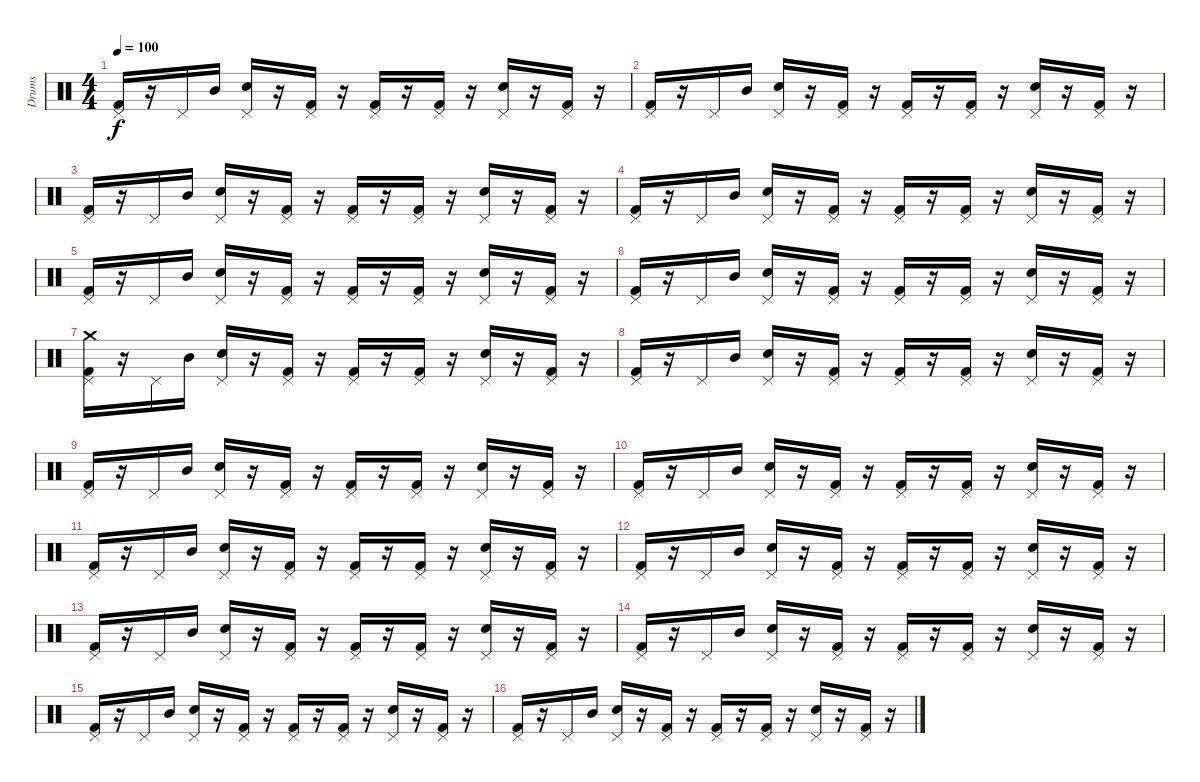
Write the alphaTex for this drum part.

\track ("Drums" "Drums") {instrument percussion}
\staff {score}
\articulation defaults
\ts (4 4)
\tempo 100
\clef neutral
\ks c
("Kick (hit) 2" "Pedal Hi-Hat (hit)").16{dy f} r.16 "Pedal Hi-Hat (hit)".16 "Mid Tom (hit)".16 ("Pedal Hi-Hat (hit)" "Electric Snare (hit)").16 r.16 ("Kick (hit) 2" "Pedal Hi-Hat (hit)").16 r.16 ("Kick (hit) 2" "Pedal Hi-Hat (hit)").16 r.16 ("Kick (hit) 2" "Pedal Hi-Hat (hit)").16 r.16 ("Pedal Hi-Hat (hit)" "Electric Snare (hit)").16 r.16 ("Kick (hit) 2" "Pedal Hi-Hat (hit)").16 r.16 |
("Kick (hit) 2" "Pedal Hi-Hat (hit)").16 r.16 "Pedal Hi-Hat (hit)".16 "Mid Tom (hit)".16 ("Pedal Hi-Hat (hit)" "Electric Snare (hit)").16 r.16 ("Kick (hit) 2" "Pedal Hi-Hat (hit)").16 r.16 ("Kick (hit) 2" "Pedal Hi-Hat (hit)").16 r.16 ("Kick (hit) 2" "Pedal Hi-Hat (hit)").16 r.16 ("Pedal Hi-Hat (hit)" "Electric Snare (hit)").16 r.16 ("Kick (hit) 2" "Pedal Hi-Hat (hit)").16 r.16 |
("Kick (hit) 2" "Pedal Hi-Hat (hit)").16 r.16 "Pedal Hi-Hat (hit)".16 "Mid Tom (hit)".16 ("Pedal Hi-Hat (hit)" "Electric Snare (hit)").16 r.16 ("Kick (hit) 2" "Pedal Hi-Hat (hit)").16 r.16 ("Kick (hit) 2" "Pedal Hi-Hat (hit)").16 r.16 ("Kick (hit) 2" "Pedal Hi-Hat (hit)").16 r.16 ("Pedal Hi-Hat (hit)" "Electric Snare (hit)").16 r.16 ("Kick (hit) 2" "Pedal Hi-Hat (hit)").16 r.16 |
("Kick (hit) 2" "Pedal Hi-Hat (hit)").16 r.16 "Pedal Hi-Hat (hit)".16 "Mid Tom (hit)".16 ("Pedal Hi-Hat (hit)" "Electric Snare (hit)").16 r.16 ("Kick (hit) 2" "Pedal Hi-Hat (hit)").16 r.16 ("Kick (hit) 2" "Pedal Hi-Hat (hit)").16 r.16 ("Kick (hit) 2" "Pedal Hi-Hat (hit)").16 r.16 ("Pedal Hi-Hat (hit)" "Electric Snare (hit)").16 r.16 ("Kick (hit) 2" "Pedal Hi-Hat (hit)").16 r.16 |
("Kick (hit) 2" "Pedal Hi-Hat (hit)").16 r.16 "Pedal Hi-Hat (hit)".16 "Mid Tom (hit)".16 ("Pedal Hi-Hat (hit)" "Electric Snare (hit)").16 r.16 ("Kick (hit) 2" "Pedal Hi-Hat (hit)").16 r.16 ("Kick (hit) 2" "Pedal Hi-Hat (hit)").16 r.16 ("Kick (hit) 2" "Pedal Hi-Hat (hit)").16 r.16 ("Pedal Hi-Hat (hit)" "Electric Snare (hit)").16 r.16 ("Kick (hit) 2" "Pedal Hi-Hat (hit)").16 r.16 |
("Kick (hit) 2" "Pedal Hi-Hat (hit)").16 r.16 "Pedal Hi-Hat (hit)".16 "Mid Tom (hit)".16 ("Pedal Hi-Hat (hit)" "Electric Snare (hit)").16 r.16 ("Kick (hit) 2" "Pedal Hi-Hat (hit)").16 r.16 ("Kick (hit) 2" "Pedal Hi-Hat (hit)").16 r.16 ("Kick (hit) 2" "Pedal Hi-Hat (hit)").16 r.16 ("Pedal Hi-Hat (hit)" "Electric Snare (hit)").16 r.16 ("Kick (hit) 2" "Pedal Hi-Hat (hit)").16 r.16 |
("Kick (hit) 2" "Pedal Hi-Hat (hit)" "Crash medium (hit)").16{volume 12} r.16 "Pedal Hi-Hat (hit)".16 "Mid Tom (hit)".16 ("Pedal Hi-Hat (hit)" "Electric Snare (hit)").16 r.16 ("Kick (hit) 2" "Pedal Hi-Hat (hit)").16 r.16 ("Kick (hit) 2" "Pedal Hi-Hat (hit)").16 r.16 ("Kick (hit) 2" "Pedal Hi-Hat (hit)").16 r.16 ("Pedal Hi-Hat (hit)" "Electric Snare (hit)").16 r.16 ("Kick (hit) 2" "Pedal Hi-Hat (hit)").16 r.16 |
("Kick (hit) 2" "Pedal Hi-Hat (hit)").16 r.16 "Pedal Hi-Hat (hit)".16 "Mid Tom (hit)".16 ("Pedal Hi-Hat (hit)" "Electric Snare (hit)").16 r.16 ("Kick (hit) 2" "Pedal Hi-Hat (hit)").16 r.16 ("Kick (hit) 2" "Pedal Hi-Hat (hit)").16 r.16 ("Kick (hit) 2" "Pedal Hi-Hat (hit)").16 r.16 ("Pedal Hi-Hat (hit)" "Electric Snare (hit)").16 r.16 ("Kick (hit) 2" "Pedal Hi-Hat (hit)").16 r.16 |
("Kick (hit) 2" "Pedal Hi-Hat (hit)").16 r.16 "Pedal Hi-Hat (hit)".16 "Mid Tom (hit)".16 ("Pedal Hi-Hat (hit)" "Electric Snare (hit)").16 r.16 ("Kick (hit) 2" "Pedal Hi-Hat (hit)").16 r.16 ("Kick (hit) 2" "Pedal Hi-Hat (hit)").16 r.16 ("Kick (hit) 2" "Pedal Hi-Hat (hit)").16 r.16 ("Pedal Hi-Hat (hit)" "Electric Snare (hit)").16 r.16 ("Kick (hit) 2" "Pedal Hi-Hat (hit)").16 r.16 |
("Kick (hit) 2" "Pedal Hi-Hat (hit)").16 r.16 "Pedal Hi-Hat (hit)".16 "Mid Tom (hit)".16 ("Pedal Hi-Hat (hit)" "Electric Snare (hit)").16 r.16 ("Kick (hit) 2" "Pedal Hi-Hat (hit)").16 r.16 ("Kick (hit) 2" "Pedal Hi-Hat (hit)").16 r.16 ("Kick (hit) 2" "Pedal Hi-Hat (hit)").16 r.16 ("Pedal Hi-Hat (hit)" "Electric Snare (hit)").16 r.16 ("Kick (hit) 2" "Pedal Hi-Hat (hit)").16 r.16 |
("Kick (hit) 2" "Pedal Hi-Hat (hit)").16 r.16 "Pedal Hi-Hat (hit)".16 "Mid Tom (hit)".16 ("Pedal Hi-Hat (hit)" "Electric Snare (hit)").16 r.16 ("Kick (hit) 2" "Pedal Hi-Hat (hit)").16 r.16 ("Kick (hit) 2" "Pedal Hi-Hat (hit)").16 r.16 ("Kick (hit) 2" "Pedal Hi-Hat (hit)").16 r.16 ("Pedal Hi-Hat (hit)" "Electric Snare (hit)").16 r.16 ("Kick (hit) 2" "Pedal Hi-Hat (hit)").16 r.16 |
("Kick (hit) 2" "Pedal Hi-Hat (hit)").16 r.16 "Pedal Hi-Hat (hit)".16 "Mid Tom (hit)".16 ("Pedal Hi-Hat (hit)" "Electric Snare (hit)").16 r.16 ("Kick (hit) 2" "Pedal Hi-Hat (hit)").16 r.16 ("Kick (hit) 2" "Pedal Hi-Hat (hit)").16 r.16 ("Kick (hit) 2" "Pedal Hi-Hat (hit)").16 r.16 ("Pedal Hi-Hat (hit)" "Electric Snare (hit)").16 r.16 ("Kick (hit) 2" "Pedal Hi-Hat (hit)").16 r.16 |
("Kick (hit) 2" "Pedal Hi-Hat (hit)").16 r.16 "Pedal Hi-Hat (hit)".16 "Mid Tom (hit)".16 ("Pedal Hi-Hat (hit)" "Electric Snare (hit)").16 r.16 ("Kick (hit) 2" "Pedal Hi-Hat (hit)").16 r.16 ("Kick (hit) 2" "Pedal Hi-Hat (hit)").16 r.16 ("Kick (hit) 2" "Pedal Hi-Hat (hit)").16 r.16 ("Pedal Hi-Hat (hit)" "Electric Snare (hit)").16 r.16 ("Kick (hit) 2" "Pedal Hi-Hat (hit)").16 r.16 |
("Kick (hit) 2" "Pedal Hi-Hat (hit)").16 r.16 "Pedal Hi-Hat (hit)".16 "Mid Tom (hit)".16 ("Pedal Hi-Hat (hit)" "Electric Snare (hit)").16 r.16 ("Kick (hit) 2" "Pedal Hi-Hat (hit)").16 r.16 ("Kick (hit) 2" "Pedal Hi-Hat (hit)").16 r.16 ("Kick (hit) 2" "Pedal Hi-Hat (hit)").16 r.16 ("Pedal Hi-Hat (hit)" "Electric Snare (hit)").16 r.16 ("Kick (hit) 2" "Pedal Hi-Hat (hit)").16 r.16 |
("Kick (hit) 2" "Pedal Hi-Hat (hit)").16 r.16 "Pedal Hi-Hat (hit)".16 "Mid Tom (hit)".16 ("Pedal Hi-Hat (hit)" "Electric Snare (hit)").16 r.16 ("Kick (hit) 2" "Pedal Hi-Hat (hit)").16 r.16 ("Kick (hit) 2" "Pedal Hi-Hat (hit)").16 r.16 ("Kick (hit) 2" "Pedal Hi-Hat (hit)").16 r.16 ("Pedal Hi-Hat (hit)" "Electric Snare (hit)").16 r.16 ("Kick (hit) 2" "Pedal Hi-Hat (hit)").16 r.16 |
("Kick (hit) 2" "Pedal Hi-Hat (hit)").16 r.16 "Pedal Hi-Hat (hit)".16 "Mid Tom (hit)".16 ("Pedal Hi-Hat (hit)" "Electric Snare (hit)").16 r.16 ("Kick (hit) 2" "Pedal Hi-Hat (hit)").16 r.16 ("Kick (hit) 2" "Pedal Hi-Hat (hit)").16 r.16 ("Kick (hit) 2" "Pedal Hi-Hat (hit)").16 r.16 ("Pedal Hi-Hat (hit)" "Electric Snare (hit)").16 r.16 ("Kick (hit) 2" "Pedal Hi-Hat (hit)").16 r.16
